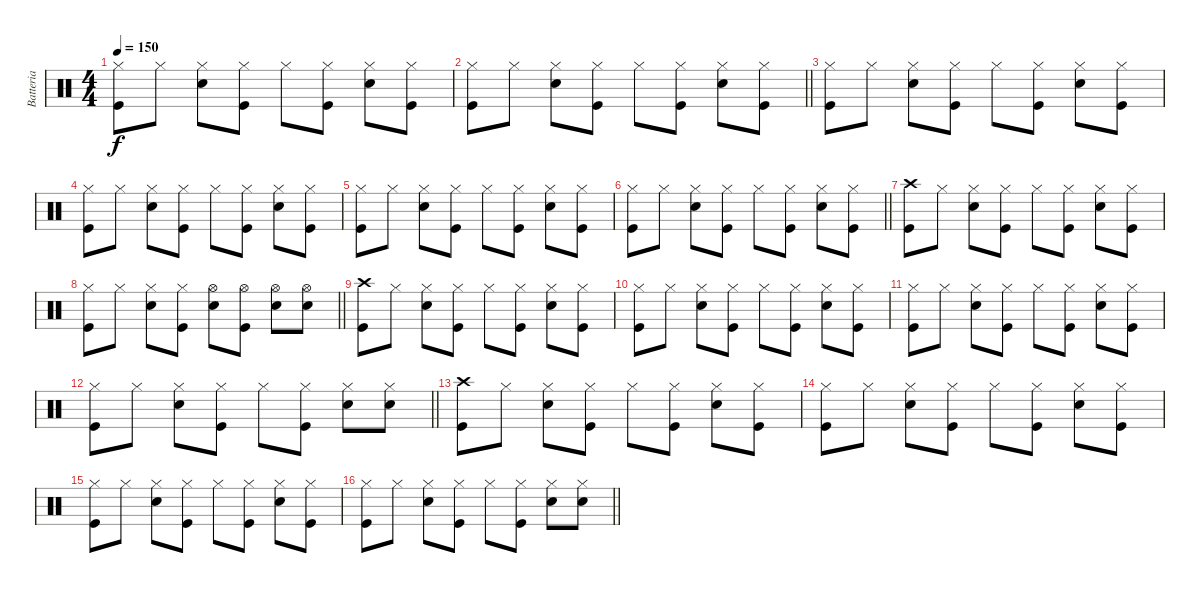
\track ("Batteria" "Batteria") {instrument percussion}
\staff {score}
\articulation defaults
\ts (4 4)
\tempo 150
\clef neutral
\ks c
("Kick (hit)" "Hi-Hat (closed)").8{dy f} "Hi-Hat (closed)".8 ("Snare (hit) 2" "Hi-Hat (closed)").8 ("Kick (hit)" "Hi-Hat (closed)").8 "Hi-Hat (closed)".8 ("Kick (hit)" "Hi-Hat (closed)").8 ("Snare (hit) 2" "Hi-Hat (closed)").8 ("Kick (hit)" "Hi-Hat (closed)").8 |
\barLineRight lightlight
("Kick (hit)" "Hi-Hat (closed)").8 "Hi-Hat (closed)".8 ("Snare (hit) 2" "Hi-Hat (closed)").8 ("Kick (hit)" "Hi-Hat (closed)").8 "Hi-Hat (closed)".8 ("Kick (hit)" "Hi-Hat (closed)").8 ("Snare (hit) 2" "Hi-Hat (closed)").8 ("Kick (hit)" "Hi-Hat (closed)").8 |
("Kick (hit)" "Hi-Hat (closed)").8 "Hi-Hat (closed)".8 ("Snare (hit) 2" "Hi-Hat (closed)").8 ("Kick (hit)" "Hi-Hat (closed)").8 "Hi-Hat (closed)".8 ("Kick (hit)" "Hi-Hat (closed)").8 ("Snare (hit) 2" "Hi-Hat (closed)").8 ("Kick (hit)" "Hi-Hat (closed)").8 |
("Kick (hit)" "Hi-Hat (closed)").8 "Hi-Hat (closed)".8 ("Snare (hit) 2" "Hi-Hat (closed)").8 ("Kick (hit)" "Hi-Hat (closed)").8 "Hi-Hat (closed)".8 ("Kick (hit)" "Hi-Hat (closed)").8 ("Snare (hit) 2" "Hi-Hat (closed)").8 ("Kick (hit)" "Hi-Hat (closed)").8 |
("Kick (hit)" "Hi-Hat (closed)").8 "Hi-Hat (closed)".8 ("Snare (hit) 2" "Hi-Hat (closed)").8 ("Kick (hit)" "Hi-Hat (closed)").8 "Hi-Hat (closed)".8 ("Kick (hit)" "Hi-Hat (closed)").8 ("Snare (hit) 2" "Hi-Hat (closed)").8 ("Kick (hit)" "Hi-Hat (closed)").8 |
\barLineRight lightlight
("Kick (hit)" "Hi-Hat (closed)").8 "Hi-Hat (closed)".8 ("Snare (hit) 2" "Hi-Hat (closed)").8 ("Kick (hit)" "Hi-Hat (closed)").8 "Hi-Hat (closed)".8 ("Kick (hit)" "Hi-Hat (closed)").8 ("Snare (hit) 2" "Hi-Hat (closed)").8 ("Kick (hit)" "Hi-Hat (closed)").8 |
("Kick (hit)" "Crash high (hit)").8 "Hi-Hat (closed)".8 ("Snare (hit) 2" "Hi-Hat (closed)").8 ("Kick (hit)" "Hi-Hat (closed)").8 "Hi-Hat (closed)".8 ("Kick (hit)" "Hi-Hat (closed)").8 ("Snare (hit) 2" "Hi-Hat (closed)").8 ("Kick (hit)" "Hi-Hat (closed)").8 |
\barLineRight lightlight
("Kick (hit)" "Hi-Hat (closed)").8 "Hi-Hat (closed)".8 ("Snare (hit) 2" "Hi-Hat (closed)").8 ("Kick (hit)" "Hi-Hat (closed)").8 ("Snare (hit) 2" "Hi-Hat (open)").8 ("Kick (hit)" "Hi-Hat (open)").8 ("Snare (hit) 2" "Hi-Hat (open)").8 ("Snare (hit) 2" "Hi-Hat (open)").8 |
("Kick (hit)" "Crash high (hit)").8 "Hi-Hat (closed)".8 ("Snare (hit) 2" "Hi-Hat (closed)").8 ("Kick (hit)" "Hi-Hat (closed)").8 "Hi-Hat (closed)".8 ("Kick (hit)" "Hi-Hat (closed)").8 ("Snare (hit) 2" "Hi-Hat (closed)").8 ("Kick (hit)" "Hi-Hat (closed)").8 |
("Kick (hit)" "Hi-Hat (closed)").8 "Hi-Hat (closed)".8 ("Snare (hit) 2" "Hi-Hat (closed)").8 ("Kick (hit)" "Hi-Hat (closed)").8 "Hi-Hat (closed)".8 ("Kick (hit)" "Hi-Hat (closed)").8 ("Snare (hit) 2" "Hi-Hat (closed)").8 ("Kick (hit)" "Hi-Hat (closed)").8 |
("Kick (hit)" "Hi-Hat (closed)").8 "Hi-Hat (closed)".8 ("Snare (hit) 2" "Hi-Hat (closed)").8 ("Kick (hit)" "Hi-Hat (closed)").8 "Hi-Hat (closed)".8 ("Kick (hit)" "Hi-Hat (closed)").8 ("Snare (hit) 2" "Hi-Hat (closed)").8 ("Kick (hit)" "Hi-Hat (closed)").8 |
\barLineRight lightlight
("Kick (hit)" "Hi-Hat (closed)").8 "Hi-Hat (closed)".8 ("Snare (hit) 2" "Hi-Hat (closed)").8 ("Kick (hit)" "Hi-Hat (closed)").8 "Hi-Hat (closed)".8 ("Kick (hit)" "Hi-Hat (closed)").8 ("Snare (hit) 2" "Hi-Hat (closed)").8 ("Hi-Hat (closed)" "Snare (hit) 2").8 |
("Kick (hit)" "Crash high (hit)").8 "Hi-Hat (closed)".8 ("Snare (hit) 2" "Hi-Hat (closed)").8 ("Kick (hit)" "Hi-Hat (closed)").8 "Hi-Hat (closed)".8 ("Kick (hit)" "Hi-Hat (closed)").8 ("Snare (hit) 2" "Hi-Hat (closed)").8 ("Kick (hit)" "Hi-Hat (closed)").8 |
("Kick (hit)" "Hi-Hat (closed)").8 "Hi-Hat (closed)".8 ("Snare (hit) 2" "Hi-Hat (closed)").8 ("Kick (hit)" "Hi-Hat (closed)").8 "Hi-Hat (closed)".8 ("Kick (hit)" "Hi-Hat (closed)").8 ("Snare (hit) 2" "Hi-Hat (closed)").8 ("Kick (hit)" "Hi-Hat (closed)").8 |
("Kick (hit)" "Hi-Hat (closed)").8 "Hi-Hat (closed)".8 ("Snare (hit) 2" "Hi-Hat (closed)").8 ("Kick (hit)" "Hi-Hat (closed)").8 "Hi-Hat (closed)".8 ("Kick (hit)" "Hi-Hat (closed)").8 ("Snare (hit) 2" "Hi-Hat (closed)").8 ("Kick (hit)" "Hi-Hat (closed)").8 |
\barLineRight lightlight
("Kick (hit)" "Hi-Hat (closed)").8 "Hi-Hat (closed)".8 ("Snare (hit) 2" "Hi-Hat (closed)").8 ("Kick (hit)" "Hi-Hat (closed)").8 "Hi-Hat (closed)".8 ("Kick (hit)" "Hi-Hat (closed)").8 ("Snare (hit) 2" "Hi-Hat (closed)").8 ("Hi-Hat (closed)" "Snare (hit) 2").8
